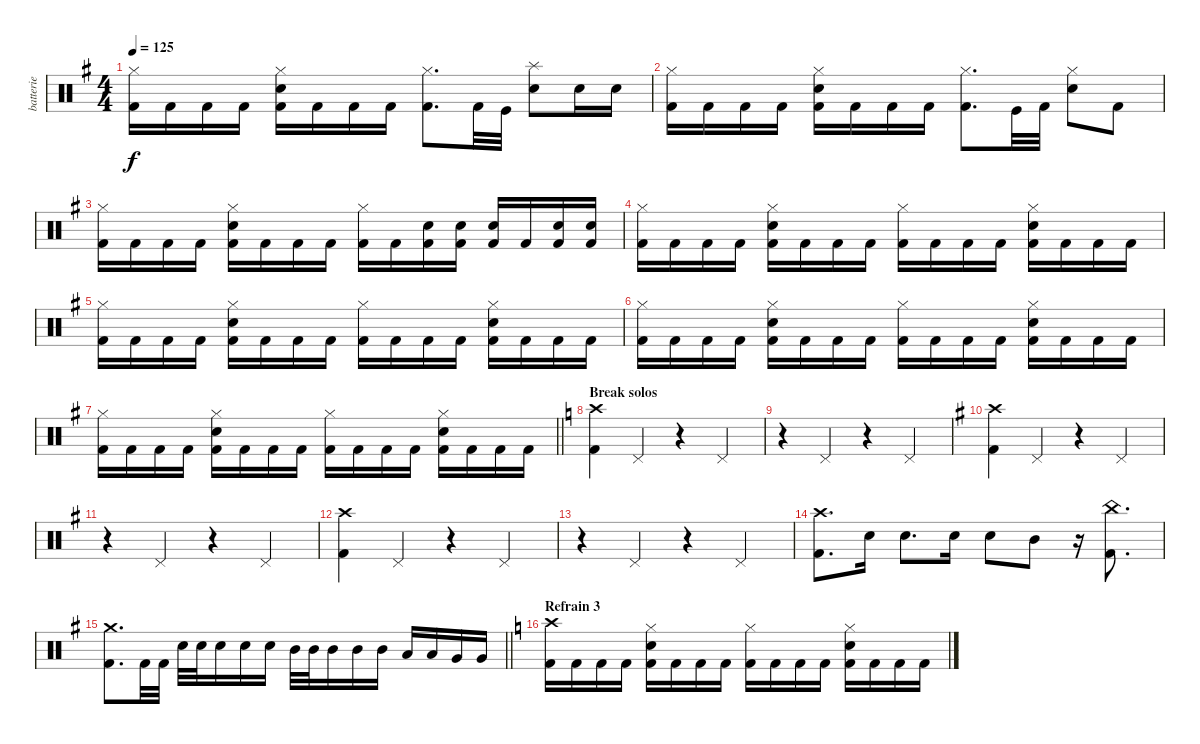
\track ("batterie" "batterie") {instrument percussion}
\staff {score}
\articulation defaults
\ts (4 4)
\tempo 125
\clef neutral
\ks eminor
("Hi-Hat (closed)" "Kick (hit) 2").16{dy f} "Kick (hit) 2".16 "Kick (hit) 2".16 "Kick (hit) 2".16 ("Hi-Hat (closed)" "Electric Snare (hit)" "Kick (hit) 2").16 "Kick (hit) 2".16 "Kick (hit) 2".16 "Kick (hit) 2".16 ("Hi-Hat (closed)" "Kick (hit) 2").8{d} "Kick (hit) 2".32 "Kick (hit)".32 ("Splash (hit)" "Electric Snare (hit)").8 "Electric Snare (hit)".16 "Electric Snare (hit)".16 |
("Hi-Hat (closed)" "Kick (hit) 2").16 "Kick (hit) 2".16 "Kick (hit) 2".16 "Kick (hit) 2".16 ("Hi-Hat (closed)" "Electric Snare (hit)" "Kick (hit) 2").16 "Kick (hit) 2".16 "Kick (hit) 2".16 "Kick (hit) 2".16 ("Hi-Hat (closed)" "Kick (hit) 2").8{d} "Kick (hit)".32 "Kick (hit) 2".32 ("Hi-Hat (closed)" "Electric Snare (hit)").8 "Kick (hit) 2".8 |
("Hi-Hat (closed)" "Kick (hit) 2").16 "Kick (hit) 2".16 "Kick (hit) 2".16 "Kick (hit) 2".16 ("Hi-Hat (closed)" "Electric Snare (hit)" "Kick (hit) 2").16 "Kick (hit) 2".16 "Kick (hit) 2".16 "Kick (hit) 2".16 ("Hi-Hat (closed)" "Kick (hit) 2").16 "Kick (hit) 2".16 ("Electric Snare (hit)" "Kick (hit) 2").16 ("Electric Snare (hit)" "Kick (hit) 2").16 ("Electric Snare (hit)" "Kick (hit) 2").16 "Kick (hit) 2".16 ("Electric Snare (hit)" "Kick (hit) 2").16 ("Electric Snare (hit)" "Kick (hit) 2").16 |
("Hi-Hat (closed)" "Kick (hit) 2").16 "Kick (hit) 2".16 "Kick (hit) 2".16 "Kick (hit) 2".16 ("Hi-Hat (closed)" "Electric Snare (hit)" "Kick (hit) 2").16 "Kick (hit) 2".16 "Kick (hit) 2".16 "Kick (hit) 2".16 ("Hi-Hat (closed)" "Kick (hit) 2").16 "Kick (hit) 2".16 "Kick (hit) 2".16 "Kick (hit) 2".16 ("Hi-Hat (closed)" "Electric Snare (hit)" "Kick (hit) 2").16 "Kick (hit) 2".16 "Kick (hit) 2".16 "Kick (hit) 2".16 |
("Hi-Hat (closed)" "Kick (hit) 2").16 "Kick (hit) 2".16 "Kick (hit) 2".16 "Kick (hit) 2".16 ("Hi-Hat (closed)" "Electric Snare (hit)" "Kick (hit) 2").16 "Kick (hit) 2".16 "Kick (hit) 2".16 "Kick (hit) 2".16 ("Hi-Hat (closed)" "Kick (hit) 2").16 "Kick (hit) 2".16 "Kick (hit) 2".16 "Kick (hit) 2".16 ("Hi-Hat (closed)" "Electric Snare (hit)" "Kick (hit) 2").16 "Kick (hit) 2".16 "Kick (hit) 2".16 "Kick (hit) 2".16 |
("Hi-Hat (closed)" "Kick (hit) 2").16 "Kick (hit) 2".16 "Kick (hit) 2".16 "Kick (hit) 2".16 ("Hi-Hat (closed)" "Electric Snare (hit)" "Kick (hit) 2").16 "Kick (hit) 2".16 "Kick (hit) 2".16 "Kick (hit) 2".16 ("Hi-Hat (closed)" "Kick (hit) 2").16 "Kick (hit) 2".16 "Kick (hit) 2".16 "Kick (hit) 2".16 ("Hi-Hat (closed)" "Electric Snare (hit)" "Kick (hit) 2").16 "Kick (hit) 2".16 "Kick (hit) 2".16 "Kick (hit) 2".16 |
\barLineRight lightlight
("Hi-Hat (closed)" "Kick (hit) 2").16 "Kick (hit) 2".16 "Kick (hit) 2".16 "Kick (hit) 2".16 ("Hi-Hat (closed)" "Electric Snare (hit)" "Kick (hit) 2").16 "Kick (hit) 2".16 "Kick (hit) 2".16 "Kick (hit) 2".16 ("Hi-Hat (closed)" "Kick (hit) 2").16 "Kick (hit) 2".16 "Kick (hit) 2".16 "Kick (hit) 2".16 ("Hi-Hat (closed)" "Electric Snare (hit)" "Kick (hit) 2").16 "Kick (hit) 2".16 "Kick (hit) 2".16 "Kick (hit) 2".16 |
\section ("" "Break solos")
\ks aminor
("Crash high (hit)" "Kick (hit) 2").4 "Pedal Hi-Hat (hit)".4 r.4 "Pedal Hi-Hat (hit)".4 |
r.4 "Pedal Hi-Hat (hit)".4 r.4 "Pedal Hi-Hat (hit)".4 |
\ks eminor
("Crash high (hit)" "Kick (hit) 2").4 "Pedal Hi-Hat (hit)".4 r.4 "Pedal Hi-Hat (hit)".4 |
r.4 "Pedal Hi-Hat (hit)".4 r.4 "Pedal Hi-Hat (hit)".4 |
("Crash high (hit)" "Kick (hit) 2").4 "Pedal Hi-Hat (hit)".4 r.4 "Pedal Hi-Hat (hit)".4 |
r.4 "Pedal Hi-Hat (hit)".4 r.4 "Pedal Hi-Hat (hit)".4 |
("Crash high (hit)" "Kick (hit) 2").8{d} "Electric Snare (hit)".16 "Electric Snare (hit)".8{d} "Electric Snare (hit)".16 "Electric Snare (hit)".8 "Mid Tom (hit)".8 r.16 ("China (hit)" "Kick (hit) 2").8{d} |
\barLineRight lightlight
("Crash medium (hit)" "Kick (hit) 2").8{d} "Kick (hit) 2".32 "Kick (hit) 2".32 "Electric Snare (hit)".32 "Electric Snare (hit)".32 "Electric Snare (hit)".16 "Electric Snare (hit)".16 "Electric Snare (hit)".16 "Mid Tom (hit)".32 "Mid Tom (hit)".32 "Mid Tom (hit)".16 "Mid Tom (hit)".16 "Mid Tom (hit)".16 "Low Tom (hit)".16 "Low Tom (hit)".16 "Very Low Tom (hit)".16 "Very Low Tom (hit)".16 |
\section ("" "Refrain 3")
\ks aminor
("Crash high (hit)" "Kick (hit) 2").16 "Kick (hit) 2".16 "Kick (hit) 2".16 "Kick (hit) 2".16 ("Hi-Hat (closed)" "Electric Snare (hit)" "Kick (hit) 2").16 "Kick (hit) 2".16 "Kick (hit) 2".16 "Kick (hit) 2".16 ("Hi-Hat (closed)" "Kick (hit) 2").16 "Kick (hit) 2".16 "Kick (hit) 2".16 "Kick (hit) 2".16 ("Hi-Hat (closed)" "Electric Snare (hit)" "Kick (hit) 2").16 "Kick (hit) 2".16 "Kick (hit) 2".16 "Kick (hit) 2".16
